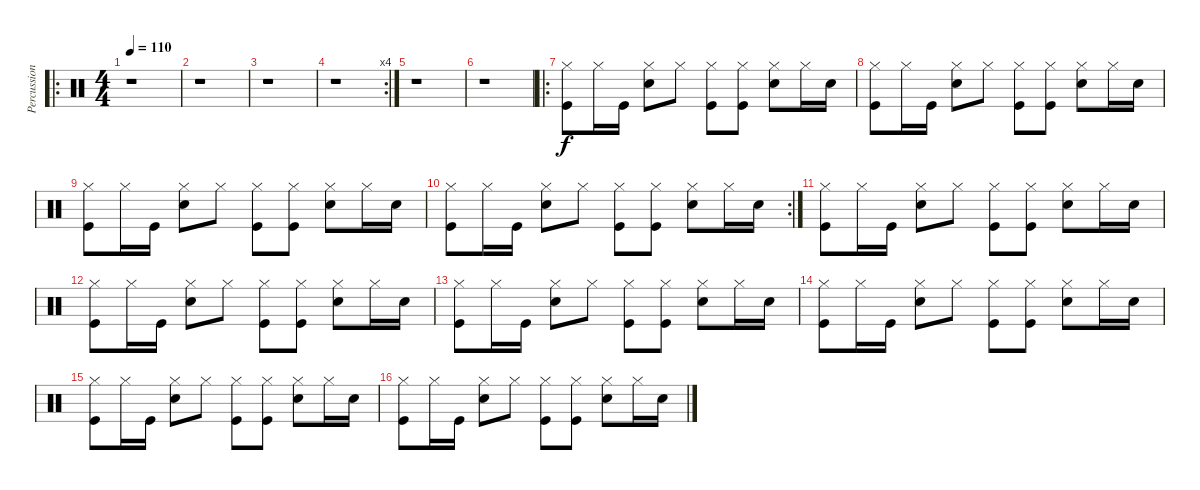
\track ("Percussion" "Percussion") {instrument percussion}
\staff {score}
\articulation defaults
\ro
\ts (4 4)
\tempo 110
\clef neutral
\ks c
r.1{dy f} |
r.1 |
r.1 |
\rc 4
r.1 |
r.1 |
r.1 |
\ro
("Hi-Hat (closed)" "Kick (hit)").8 "Hi-Hat (closed)".16 "Kick (hit)".16 ("Hi-Hat (closed)" "Snare (hit) 2").8 "Hi-Hat (closed)".8 ("Hi-Hat (closed)" "Kick (hit)").8 ("Hi-Hat (closed)" "Kick (hit)").8 ("Hi-Hat (closed)" "Snare (hit) 2").8 "Hi-Hat (closed)".16 "Snare (hit) 2".16 |
("Hi-Hat (closed)" "Kick (hit)").8 "Hi-Hat (closed)".16 "Kick (hit)".16 ("Hi-Hat (closed)" "Snare (hit) 2").8 "Hi-Hat (closed)".8 ("Hi-Hat (closed)" "Kick (hit)").8 ("Hi-Hat (closed)" "Kick (hit)").8 ("Hi-Hat (closed)" "Snare (hit) 2").8 "Hi-Hat (closed)".16 "Snare (hit) 2".16 |
("Hi-Hat (closed)" "Kick (hit)").8 "Hi-Hat (closed)".16 "Kick (hit)".16 ("Hi-Hat (closed)" "Snare (hit) 2").8 "Hi-Hat (closed)".8 ("Hi-Hat (closed)" "Kick (hit)").8 ("Hi-Hat (closed)" "Kick (hit)").8 ("Hi-Hat (closed)" "Snare (hit) 2").8 "Hi-Hat (closed)".16 "Snare (hit) 2".16 |
\rc 2
("Hi-Hat (closed)" "Kick (hit)").8 "Hi-Hat (closed)".16 "Kick (hit)".16 ("Hi-Hat (closed)" "Snare (hit) 2").8 "Hi-Hat (closed)".8 ("Hi-Hat (closed)" "Kick (hit)").8 ("Hi-Hat (closed)" "Kick (hit)").8 ("Hi-Hat (closed)" "Snare (hit) 2").8 "Hi-Hat (closed)".16 "Snare (hit) 2".16 |
("Hi-Hat (closed)" "Kick (hit)").8 "Hi-Hat (closed)".16 "Kick (hit)".16 ("Hi-Hat (closed)" "Snare (hit) 2").8 "Hi-Hat (closed)".8 ("Hi-Hat (closed)" "Kick (hit)").8 ("Hi-Hat (closed)" "Kick (hit)").8 ("Hi-Hat (closed)" "Snare (hit) 2").8 "Hi-Hat (closed)".16 "Snare (hit) 2".16 |
("Hi-Hat (closed)" "Kick (hit)").8 "Hi-Hat (closed)".16 "Kick (hit)".16 ("Hi-Hat (closed)" "Snare (hit) 2").8 "Hi-Hat (closed)".8 ("Hi-Hat (closed)" "Kick (hit)").8 ("Hi-Hat (closed)" "Kick (hit)").8 ("Hi-Hat (closed)" "Snare (hit) 2").8 "Hi-Hat (closed)".16 "Snare (hit) 2".16 |
("Hi-Hat (closed)" "Kick (hit)").8 "Hi-Hat (closed)".16 "Kick (hit)".16 ("Hi-Hat (closed)" "Snare (hit) 2").8 "Hi-Hat (closed)".8 ("Hi-Hat (closed)" "Kick (hit)").8 ("Hi-Hat (closed)" "Kick (hit)").8 ("Hi-Hat (closed)" "Snare (hit) 2").8 "Hi-Hat (closed)".16 "Snare (hit) 2".16 |
("Hi-Hat (closed)" "Kick (hit)").8 "Hi-Hat (closed)".16 "Kick (hit)".16 ("Hi-Hat (closed)" "Snare (hit) 2").8 "Hi-Hat (closed)".8 ("Hi-Hat (closed)" "Kick (hit)").8 ("Hi-Hat (closed)" "Kick (hit)").8 ("Hi-Hat (closed)" "Snare (hit) 2").8 "Hi-Hat (closed)".16 "Snare (hit) 2".16 |
("Hi-Hat (closed)" "Kick (hit)").8 "Hi-Hat (closed)".16 "Kick (hit)".16 ("Hi-Hat (closed)" "Snare (hit) 2").8 "Hi-Hat (closed)".8 ("Hi-Hat (closed)" "Kick (hit)").8 ("Hi-Hat (closed)" "Kick (hit)").8 ("Hi-Hat (closed)" "Snare (hit) 2").8 "Hi-Hat (closed)".16 "Snare (hit) 2".16 |
("Hi-Hat (closed)" "Kick (hit)").8 "Hi-Hat (closed)".16 "Kick (hit)".16 ("Hi-Hat (closed)" "Snare (hit) 2").8 "Hi-Hat (closed)".8 ("Hi-Hat (closed)" "Kick (hit)").8 ("Hi-Hat (closed)" "Kick (hit)").8 ("Hi-Hat (closed)" "Snare (hit) 2").8 "Hi-Hat (closed)".16 "Snare (hit) 2".16
